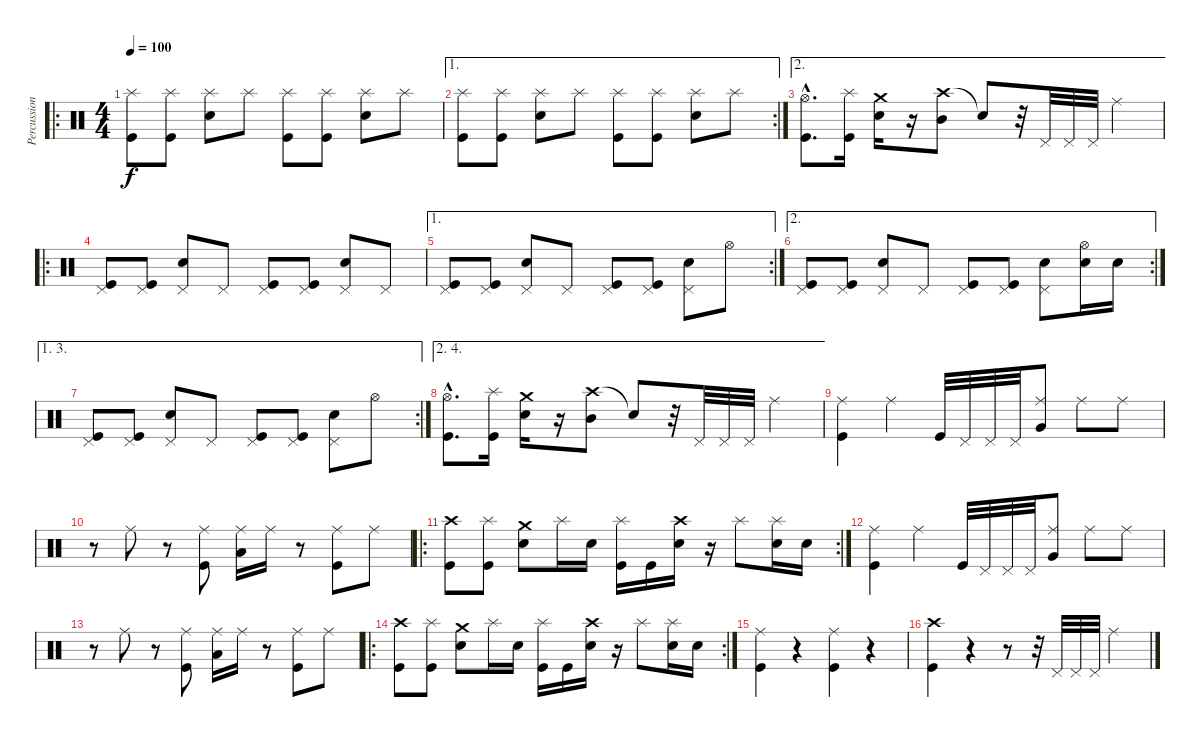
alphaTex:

\track ("Percussions" "Percussion") {instrument percussion}
\staff {score}
\articulation defaults
\ro
\ts (4 4)
\tempo 100
\clef neutral
\ks c
("Splash (hit)" "Kick (hit)").8{dy f} ("Splash (hit)" "Kick (hit)").8 ("Splash (hit)" "Snare (hit) 2").8 "Splash (hit)".8 ("Splash (hit)" "Kick (hit)").8 ("Splash (hit)" "Kick (hit)").8 ("Splash (hit)" "Snare (hit) 2").8 "Splash (hit)".8 |
\ae 1
\rc 2
("Splash (hit)" "Kick (hit)").8 ("Splash (hit)" "Kick (hit)").8 ("Splash (hit)" "Snare (hit) 2").8 "Splash (hit)".8 ("Splash (hit)" "Kick (hit)").8 ("Splash (hit)" "Kick (hit)").8 ("Splash (hit)" "Snare (hit) 2").8 "Splash (hit)".8 |
\ae 2
("Hi-Hat (open)"{hac} "Kick (hit)"{hac}).8{d} ("Splash (hit)" "Kick (hit)").16 ("Crash medium (hit)" "Snare (hit) 2").16 r.16 ("Crash high (hit)" "Mid Tom (hit)").8 "Snare (hit)"{t}.8 r.32 "Pedal Hi-Hat (hit)".32 "Pedal Hi-Hat (hit)".32 "Pedal Hi-Hat (hit)".32 "Ride (middle)".4 |
\ro
("Pedal Hi-Hat (hit)" "Kick (hit)").8 ("Pedal Hi-Hat (hit)" "Kick (hit)").8 ("Pedal Hi-Hat (hit)" "Snare (hit) 2").8 "Pedal Hi-Hat (hit)".8 ("Pedal Hi-Hat (hit)" "Kick (hit)").8 ("Pedal Hi-Hat (hit)" "Kick (hit)").8 ("Pedal Hi-Hat (hit)" "Snare (hit) 2").8 "Pedal Hi-Hat (hit)".8 |
\ae 1
\rc 2
("Pedal Hi-Hat (hit)" "Kick (hit)").8 ("Pedal Hi-Hat (hit)" "Kick (hit)").8 ("Pedal Hi-Hat (hit)" "Snare (hit) 2").8 "Pedal Hi-Hat (hit)".8 ("Pedal Hi-Hat (hit)" "Kick (hit)").8 ("Pedal Hi-Hat (hit)" "Kick (hit)").8 ("Pedal Hi-Hat (hit)" "Snare (hit) 2").8 "Hi-Hat (open)".8 |
\ae 2
\rc 2
("Pedal Hi-Hat (hit)" "Kick (hit)").8 ("Pedal Hi-Hat (hit)" "Kick (hit)").8 ("Pedal Hi-Hat (hit)" "Snare (hit) 2").8 "Pedal Hi-Hat (hit)".8 ("Pedal Hi-Hat (hit)" "Kick (hit)").8 ("Pedal Hi-Hat (hit)" "Kick (hit)").8 ("Pedal Hi-Hat (hit)" "Snare (hit) 2").8 ("Hi-Hat (open)" "Snare (hit) 2").16 "Snare (hit) 2".16 |
\ae (1 3)
\rc 2
("Pedal Hi-Hat (hit)" "Kick (hit)").8 ("Pedal Hi-Hat (hit)" "Kick (hit)").8 ("Pedal Hi-Hat (hit)" "Snare (hit) 2").8 "Pedal Hi-Hat (hit)".8 ("Pedal Hi-Hat (hit)" "Kick (hit)").8 ("Pedal Hi-Hat (hit)" "Kick (hit)").8 ("Pedal Hi-Hat (hit)" "Snare (hit) 2").8 "Hi-Hat (open)".8 |
\ae (2 4)
("Hi-Hat (open)"{hac} "Kick (hit)"{hac}).8{d} ("Splash (hit)" "Kick (hit)").16 ("Crash medium (hit)" "Snare (hit) 2").16 r.16 ("Crash high (hit)" "Mid Tom (hit)").8 "Snare (hit)"{t}.8 r.32 "Pedal Hi-Hat (hit)".32 "Pedal Hi-Hat (hit)".32 "Pedal Hi-Hat (hit)".32 "Ride (middle)".4 |
("Ride (middle)" "Kick (hit)").4 "Ride (middle)".4 "Kick (hit)".32 "Pedal Hi-Hat (hit)".32 "Pedal Hi-Hat (hit)".32 "Pedal Hi-Hat (hit)".32 ("Ride (middle)" "Very Low Tom (hit)").8 "Ride (middle)".8 "Ride (middle)".8 |
r.8 "Ride (middle)".8 r.8 ("Ride (middle)" "Kick (hit)").8 ("Ride (middle)" "Low Tom (hit)").16 "Ride (middle)".16 r.8 ("Ride (middle)" "Kick (hit)").8 "Ride (middle)".8 |
\ro
\rc 2
("Crash high (hit)" "Kick (hit)").8 ("Splash (hit)" "Kick (hit)").8 ("Crash medium (hit)" "Snare (hit) 2").8 "Splash (hit)".16 "Snare (hit) 2".16 ("Splash (hit)" "Kick (hit)").16 "Kick (hit)".16 ("Crash high (hit)" "Snare (hit) 2").16 r.16 "Splash (hit)".8 ("Splash (hit)" "Snare (hit) 2").16 "Snare (hit) 2".16 |
("Ride (middle)" "Kick (hit)").4 "Ride (middle)".4 "Kick (hit)".32 "Pedal Hi-Hat (hit)".32 "Pedal Hi-Hat (hit)".32 "Pedal Hi-Hat (hit)".32 ("Ride (middle)" "Very Low Tom (hit)").8 "Ride (middle)".8 "Ride (middle)".8 |
r.8 "Ride (middle)".8 r.8 ("Ride (middle)" "Kick (hit)").8 ("Ride (middle)" "Low Tom (hit)").16 "Ride (middle)".16 r.8 ("Ride (middle)" "Kick (hit)").8 "Ride (middle)".8 |
\ro
\rc 2
("Crash high (hit)" "Kick (hit)").8 ("Splash (hit)" "Kick (hit)").8 ("Crash medium (hit)" "Snare (hit) 2").8 "Splash (hit)".16 "Snare (hit) 2".16 ("Splash (hit)" "Kick (hit)").16 "Kick (hit)".16 ("Crash high (hit)" "Snare (hit) 2").16 r.16 "Splash (hit)".8 ("Splash (hit)" "Snare (hit) 2").16 "Snare (hit) 2".16 |
("Ride (middle)" "Kick (hit)").4 r.4 ("Ride (middle)" "Kick (hit)").4 r.4 |
("Crash high (hit)" "Kick (hit)").4 r.4 r.8 r.32 "Pedal Hi-Hat (hit)".32 "Pedal Hi-Hat (hit)".32 "Pedal Hi-Hat (hit)".32 "Ride (middle)".4
